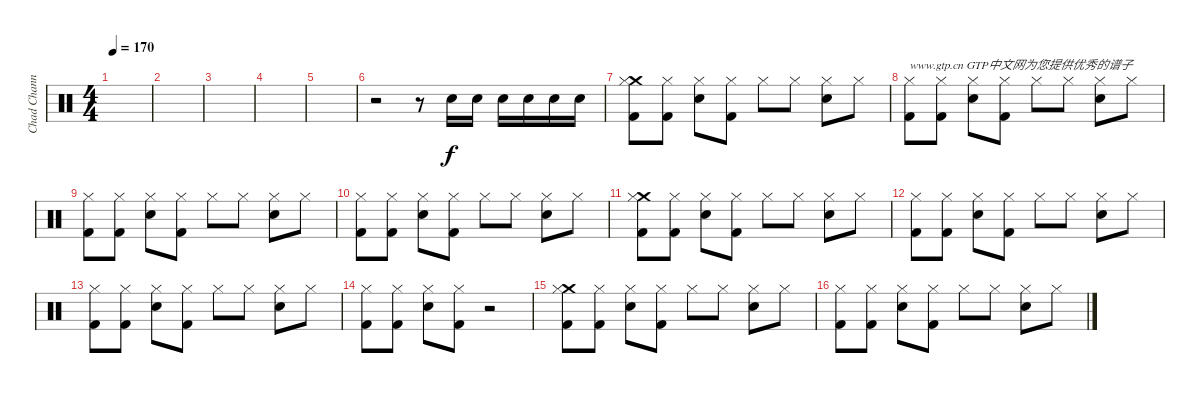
\track ("Chad Channing" "Chad Chann") {instrument percussion}
\staff {score}
\articulation defaults
\ts (4 4)
\tempo 170
\clef neutral
\ks c
|
|
|
|
|
r.2 r.8 "Snare (hit) 2".16 "Snare (hit) 2".16 "Snare (hit) 2".16 "Snare (hit) 2".16 "Snare (hit) 2".16 "Snare (hit) 2".16 |
("Crash medium (hit)" "Hi-Hat (closed)" "Kick (hit) 2").8 ("Hi-Hat (closed)" "Kick (hit) 2").8 ("Hi-Hat (closed)" "Snare (hit) 2").8 ("Hi-Hat (closed)" "Kick (hit) 2").8 "Hi-Hat (closed)".8 "Hi-Hat (closed)".8 ("Hi-Hat (closed)" "Snare (hit) 2").8 "Hi-Hat (closed)".8 |
("Hi-Hat (closed)" "Kick (hit) 2").8{txt "www.gtp.cn GTP中文网为您提供优秀的谱子"} ("Hi-Hat (closed)" "Kick (hit) 2").8 ("Hi-Hat (closed)" "Snare (hit) 2").8 ("Hi-Hat (closed)" "Kick (hit) 2").8 "Hi-Hat (closed)".8 "Hi-Hat (closed)".8 ("Hi-Hat (closed)" "Snare (hit) 2").8 "Hi-Hat (closed)".8 |
("Hi-Hat (closed)" "Kick (hit) 2").8 ("Hi-Hat (closed)" "Kick (hit) 2").8 ("Hi-Hat (closed)" "Snare (hit) 2").8 ("Hi-Hat (closed)" "Kick (hit) 2").8 "Hi-Hat (closed)".8 "Hi-Hat (closed)".8 ("Hi-Hat (closed)" "Snare (hit) 2").8 "Hi-Hat (closed)".8 |
("Hi-Hat (closed)" "Kick (hit) 2").8 ("Hi-Hat (closed)" "Kick (hit) 2").8 ("Hi-Hat (closed)" "Snare (hit) 2").8 ("Hi-Hat (closed)" "Kick (hit) 2").8 "Hi-Hat (closed)".8 "Hi-Hat (closed)".8 ("Hi-Hat (closed)" "Snare (hit) 2").8 "Hi-Hat (closed)".8 |
("Crash medium (hit)" "Hi-Hat (closed)" "Kick (hit) 2").8 ("Hi-Hat (closed)" "Kick (hit) 2").8 ("Hi-Hat (closed)" "Snare (hit) 2").8 ("Hi-Hat (closed)" "Kick (hit) 2").8 "Hi-Hat (closed)".8 "Hi-Hat (closed)".8 ("Hi-Hat (closed)" "Snare (hit) 2").8 "Hi-Hat (closed)".8 |
("Hi-Hat (closed)" "Kick (hit) 2").8 ("Hi-Hat (closed)" "Kick (hit) 2").8 ("Hi-Hat (closed)" "Snare (hit) 2").8 ("Hi-Hat (closed)" "Kick (hit) 2").8 "Hi-Hat (closed)".8 "Hi-Hat (closed)".8 ("Hi-Hat (closed)" "Snare (hit) 2").8 "Hi-Hat (closed)".8 |
("Hi-Hat (closed)" "Kick (hit) 2").8 ("Hi-Hat (closed)" "Kick (hit) 2").8 ("Hi-Hat (closed)" "Snare (hit) 2").8 ("Hi-Hat (closed)" "Kick (hit) 2").8 "Hi-Hat (closed)".8 "Hi-Hat (closed)".8 ("Hi-Hat (closed)" "Snare (hit) 2").8 "Hi-Hat (closed)".8 |
("Hi-Hat (closed)" "Kick (hit) 2").8 ("Hi-Hat (closed)" "Kick (hit) 2").8 ("Hi-Hat (closed)" "Snare (hit) 2").8 ("Hi-Hat (closed)" "Kick (hit) 2").8 r.2 |
("Crash medium (hit)" "Hi-Hat (closed)" "Kick (hit) 2").8 ("Hi-Hat (closed)" "Kick (hit) 2").8 ("Hi-Hat (closed)" "Snare (hit) 2").8 ("Hi-Hat (closed)" "Kick (hit) 2").8 "Hi-Hat (closed)".8 "Hi-Hat (closed)".8 ("Hi-Hat (closed)" "Snare (hit) 2").8 "Hi-Hat (closed)".8 |
("Hi-Hat (closed)" "Kick (hit) 2").8 ("Hi-Hat (closed)" "Kick (hit) 2").8 ("Hi-Hat (closed)" "Snare (hit) 2").8 ("Hi-Hat (closed)" "Kick (hit) 2").8 "Hi-Hat (closed)".8 "Hi-Hat (closed)".8 ("Hi-Hat (closed)" "Snare (hit) 2").8 "Hi-Hat (closed)".8
